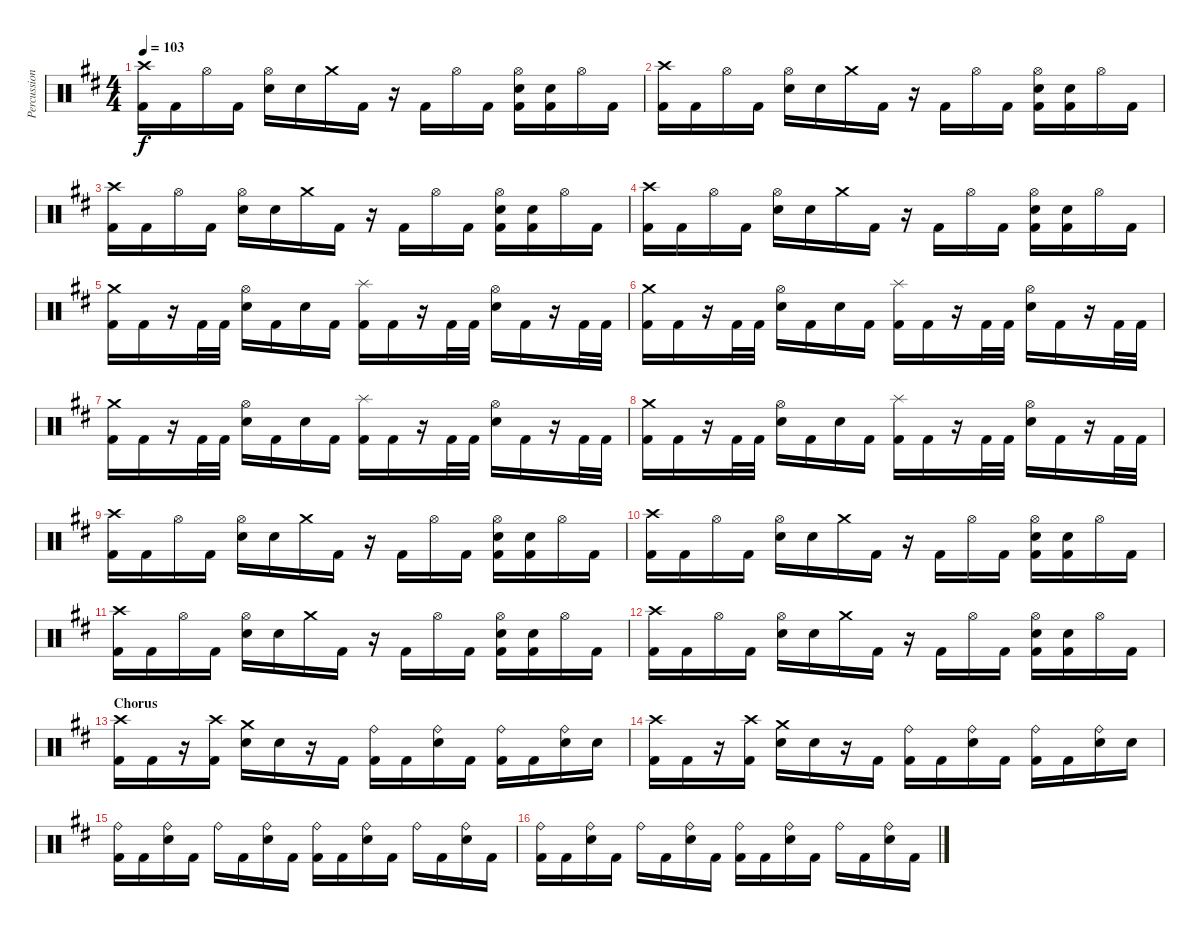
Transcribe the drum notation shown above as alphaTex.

\track ("Percussion" "Percussion") {instrument percussion}
\staff {score}
\articulation defaults
\ts (4 4)
\tempo 103
\clef neutral
\ks d
("Crash high (hit)" "Kick (hit) 2").16{dy f} "Kick (hit) 2".16 "Hi-Hat (open)".16 "Kick (hit) 2".16 ("Hi-Hat (open)" "Snare (hit) 2").16 "Snare (hit) 2".16 "Crash medium (hit)".16 "Kick (hit) 2".16 r.16 "Kick (hit) 2".16 "Hi-Hat (open)".16 "Kick (hit) 2".16 ("Hi-Hat (open)" "Snare (hit) 2" "Kick (hit) 2").16 ("Snare (hit) 2" "Kick (hit) 2").16 "Hi-Hat (open)".16 "Kick (hit) 2".16 |
("Crash high (hit)" "Kick (hit) 2").16 "Kick (hit) 2".16 "Hi-Hat (open)".16 "Kick (hit) 2".16 ("Hi-Hat (open)" "Snare (hit) 2").16 "Snare (hit) 2".16 "Crash medium (hit)".16 "Kick (hit) 2".16 r.16 "Kick (hit) 2".16 "Hi-Hat (open)".16 "Kick (hit) 2".16 ("Hi-Hat (open)" "Snare (hit) 2" "Kick (hit) 2").16 ("Snare (hit) 2" "Kick (hit) 2").16 "Hi-Hat (open)".16 "Kick (hit) 2".16 |
("Crash high (hit)" "Kick (hit) 2").16 "Kick (hit) 2".16 "Hi-Hat (open)".16 "Kick (hit) 2".16 ("Hi-Hat (open)" "Snare (hit) 2").16 "Snare (hit) 2".16 "Crash medium (hit)".16 "Kick (hit) 2".16 r.16 "Kick (hit) 2".16 "Hi-Hat (open)".16 "Kick (hit) 2".16 ("Hi-Hat (open)" "Snare (hit) 2" "Kick (hit) 2").16 ("Snare (hit) 2" "Kick (hit) 2").16 "Hi-Hat (open)".16 "Kick (hit) 2".16 |
("Crash high (hit)" "Kick (hit) 2").16 "Kick (hit) 2".16 "Hi-Hat (open)".16 "Kick (hit) 2".16 ("Hi-Hat (open)" "Snare (hit) 2").16 "Snare (hit) 2".16 "Crash medium (hit)".16 "Kick (hit) 2".16 r.16 "Kick (hit) 2".16 "Hi-Hat (open)".16 "Kick (hit) 2".16 ("Hi-Hat (open)" "Snare (hit) 2" "Kick (hit) 2").16 ("Snare (hit) 2" "Kick (hit) 2").16 "Hi-Hat (open)".16 "Kick (hit) 2".16 |
("Crash medium (hit)" "Kick (hit) 2").16 "Kick (hit) 2".16 r.16 "Kick (hit) 2".32 "Kick (hit) 2".32 ("Hi-Hat (open)" "Snare (hit) 2").16 "Kick (hit) 2".16 "Snare (hit) 2".16 "Kick (hit) 2".16 ("Splash (hit)" "Kick (hit) 2").16 "Kick (hit) 2".16 r.16 "Kick (hit) 2".32 "Kick (hit) 2".32 ("Hi-Hat (open)" "Snare (hit) 2").16 "Kick (hit) 2".16 r.16 "Kick (hit) 2".32 "Kick (hit) 2".32 |
("Crash medium (hit)" "Kick (hit) 2").16 "Kick (hit) 2".16 r.16 "Kick (hit) 2".32 "Kick (hit) 2".32 ("Hi-Hat (open)" "Snare (hit) 2").16 "Kick (hit) 2".16 "Snare (hit) 2".16 "Kick (hit) 2".16 ("Splash (hit)" "Kick (hit) 2").16 "Kick (hit) 2".16 r.16 "Kick (hit) 2".32 "Kick (hit) 2".32 ("Hi-Hat (open)" "Snare (hit) 2").16 "Kick (hit) 2".16 r.16 "Kick (hit) 2".32 "Kick (hit) 2".32 |
("Crash medium (hit)" "Kick (hit) 2").16 "Kick (hit) 2".16 r.16 "Kick (hit) 2".32 "Kick (hit) 2".32 ("Hi-Hat (open)" "Snare (hit) 2").16 "Kick (hit) 2".16 "Snare (hit) 2".16 "Kick (hit) 2".16 ("Splash (hit)" "Kick (hit) 2").16 "Kick (hit) 2".16 r.16 "Kick (hit) 2".32 "Kick (hit) 2".32 ("Hi-Hat (open)" "Snare (hit) 2").16 "Kick (hit) 2".16 r.16 "Kick (hit) 2".32 "Kick (hit) 2".32 |
("Crash medium (hit)" "Kick (hit) 2").16 "Kick (hit) 2".16 r.16 "Kick (hit) 2".32 "Kick (hit) 2".32 ("Hi-Hat (open)" "Snare (hit) 2").16 "Kick (hit) 2".16 "Snare (hit) 2".16 "Kick (hit) 2".16 ("Splash (hit)" "Kick (hit) 2").16 "Kick (hit) 2".16 r.16 "Kick (hit) 2".32 "Kick (hit) 2".32 ("Hi-Hat (open)" "Snare (hit) 2").16 "Kick (hit) 2".16 r.16 "Kick (hit) 2".32 "Kick (hit) 2".32 |
("Crash high (hit)" "Kick (hit) 2").16 "Kick (hit) 2".16 "Hi-Hat (open)".16 "Kick (hit) 2".16 ("Hi-Hat (open)" "Snare (hit) 2").16 "Snare (hit) 2".16 "Crash medium (hit)".16 "Kick (hit) 2".16 r.16 "Kick (hit) 2".16 "Hi-Hat (open)".16 "Kick (hit) 2".16 ("Hi-Hat (open)" "Snare (hit) 2" "Kick (hit) 2").16 ("Snare (hit) 2" "Kick (hit) 2").16 "Hi-Hat (open)".16 "Kick (hit) 2".16 |
("Crash high (hit)" "Kick (hit) 2").16 "Kick (hit) 2".16 "Hi-Hat (open)".16 "Kick (hit) 2".16 ("Hi-Hat (open)" "Snare (hit) 2").16 "Snare (hit) 2".16 "Crash medium (hit)".16 "Kick (hit) 2".16 r.16 "Kick (hit) 2".16 "Hi-Hat (open)".16 "Kick (hit) 2".16 ("Hi-Hat (open)" "Snare (hit) 2" "Kick (hit) 2").16 ("Snare (hit) 2" "Kick (hit) 2").16 "Hi-Hat (open)".16 "Kick (hit) 2".16 |
("Crash high (hit)" "Kick (hit) 2").16 "Kick (hit) 2".16 "Hi-Hat (open)".16 "Kick (hit) 2".16 ("Hi-Hat (open)" "Snare (hit) 2").16 "Snare (hit) 2".16 "Crash medium (hit)".16 "Kick (hit) 2".16 r.16 "Kick (hit) 2".16 "Hi-Hat (open)".16 "Kick (hit) 2".16 ("Hi-Hat (open)" "Snare (hit) 2" "Kick (hit) 2").16 ("Snare (hit) 2" "Kick (hit) 2").16 "Hi-Hat (open)".16 "Kick (hit) 2".16 |
("Crash high (hit)" "Kick (hit) 2").16 "Kick (hit) 2".16 "Hi-Hat (open)".16 "Kick (hit) 2".16 ("Hi-Hat (open)" "Snare (hit) 2").16 "Snare (hit) 2".16 "Crash medium (hit)".16 "Kick (hit) 2".16 r.16 "Kick (hit) 2".16 "Hi-Hat (open)".16 "Kick (hit) 2".16 ("Hi-Hat (open)" "Snare (hit) 2" "Kick (hit) 2").16 ("Snare (hit) 2" "Kick (hit) 2").16 "Hi-Hat (open)".16 "Kick (hit) 2".16 |
\section ("" "Chorus")
("Crash high (hit)" "Kick (hit) 2").16 "Kick (hit) 2".16 r.16 ("Crash high (hit)" "Kick (hit) 2").16 ("Crash medium (hit)" "Snare (hit) 2").16 "Snare (hit) 2".16 r.16 "Kick (hit) 2".16 ("Ride (bell)" "Kick (hit) 2").16 "Kick (hit) 2".16 ("Ride (bell)" "Snare (hit) 2").16 "Kick (hit) 2".16 ("Ride (bell)" "Kick (hit) 2").16 "Kick (hit) 2".16 ("Ride (bell)" "Snare (hit) 2").16 "Snare (hit) 2".16 |
("Crash high (hit)" "Kick (hit) 2").16 "Kick (hit) 2".16 r.16 ("Crash high (hit)" "Kick (hit) 2").16 ("Crash medium (hit)" "Snare (hit) 2").16 "Snare (hit) 2".16 r.16 "Kick (hit) 2".16 ("Ride (bell)" "Kick (hit) 2").16 "Kick (hit) 2".16 ("Ride (bell)" "Snare (hit) 2").16 "Kick (hit) 2".16 ("Ride (bell)" "Kick (hit) 2").16 "Kick (hit) 2".16 ("Ride (bell)" "Snare (hit) 2").16 "Snare (hit) 2".16 |
("Ride (bell)" "Kick (hit) 2").16 "Kick (hit) 2".16 ("Ride (bell)" "Snare (hit) 2").16 "Kick (hit) 2".16 "Ride (bell)".16 "Kick (hit) 2".16 ("Ride (bell)" "Snare (hit) 2").16 "Kick (hit) 2".16 ("Ride (bell)" "Kick (hit) 2").16 "Kick (hit) 2".16 ("Ride (bell)" "Snare (hit) 2").16 "Kick (hit) 2".16 "Ride (bell)".16 "Kick (hit) 2".16 ("Ride (bell)" "Snare (hit) 2").16 "Kick (hit) 2".16 |
("Ride (bell)" "Kick (hit) 2").16 "Kick (hit) 2".16 ("Ride (bell)" "Snare (hit) 2").16 "Kick (hit) 2".16 "Ride (bell)".16 "Kick (hit) 2".16 ("Ride (bell)" "Snare (hit) 2").16 "Kick (hit) 2".16 ("Ride (bell)" "Kick (hit) 2").16 "Kick (hit) 2".16 ("Ride (bell)" "Snare (hit) 2").16 "Kick (hit) 2".16 "Ride (bell)".16 "Kick (hit) 2".16 ("Ride (bell)" "Snare (hit) 2").16 "Kick (hit) 2".16
